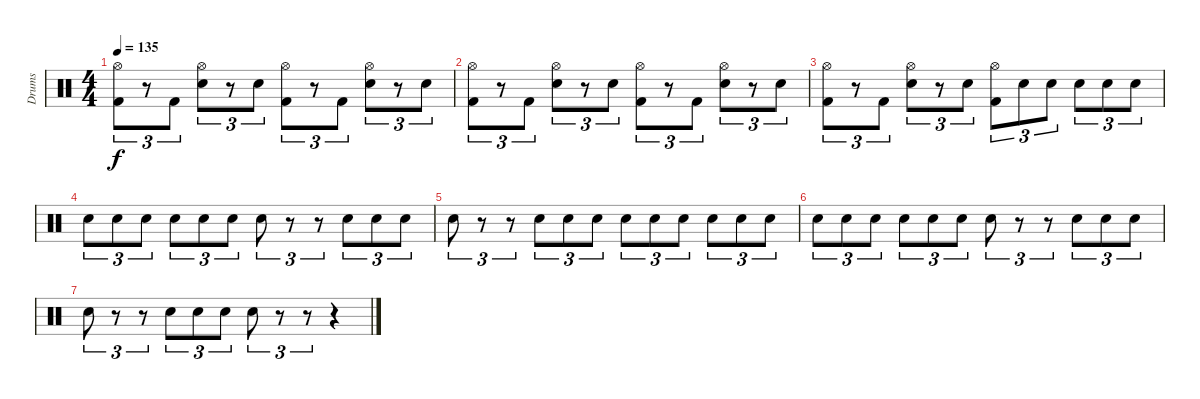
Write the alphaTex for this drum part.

\track ("Drums" "Drums") {instrument percussion}
\staff {score}
\articulation defaults
\ts (4 4)
\tempo 135
\clef neutral
\ks c
("Kick (hit) 2" "Hi-Hat (open)").8{tu (3 2) dy f} r.8{tu (3 2)} "Kick (hit) 2".8{tu (3 2)} ("Snare (hit) 2" "Hi-Hat (open)").8{tu (3 2)} r.8{tu (3 2)} "Snare (hit) 2".8{tu (3 2)} ("Kick (hit) 2" "Hi-Hat (open)").8{tu (3 2)} r.8{tu (3 2)} "Kick (hit) 2".8{tu (3 2)} ("Snare (hit) 2" "Hi-Hat (open)").8{tu (3 2)} r.8{tu (3 2)} "Snare (hit) 2".8{tu (3 2)} |
("Kick (hit) 2" "Hi-Hat (open)").8{tu (3 2)} r.8{tu (3 2)} "Kick (hit) 2".8{tu (3 2)} ("Snare (hit) 2" "Hi-Hat (open)").8{tu (3 2)} r.8{tu (3 2)} "Snare (hit) 2".8{tu (3 2)} ("Kick (hit) 2" "Hi-Hat (open)").8{tu (3 2)} r.8{tu (3 2)} "Kick (hit) 2".8{tu (3 2)} ("Snare (hit) 2" "Hi-Hat (open)").8{tu (3 2)} r.8{tu (3 2)} "Snare (hit) 2".8{tu (3 2)} |
("Kick (hit) 2" "Hi-Hat (open)").8{tu (3 2)} r.8{tu (3 2)} "Kick (hit) 2".8{tu (3 2)} ("Snare (hit) 2" "Hi-Hat (open)").8{tu (3 2)} r.8{tu (3 2)} "Snare (hit) 2".8{tu (3 2)} ("Kick (hit) 2" "Hi-Hat (open)").8{tu (3 2)} "Snare (hit) 2".8{tu (3 2)} "Snare (hit) 2".8{tu (3 2)} "Snare (hit) 2".8{tu (3 2)} "Snare (hit) 2".8{tu (3 2)} "Snare (hit) 2".8{tu (3 2)} |
"Snare (hit) 2".8{tu (3 2)} "Snare (hit) 2".8{tu (3 2)} "Snare (hit) 2".8{tu (3 2)} "Snare (hit) 2".8{tu (3 2)} "Snare (hit) 2".8{tu (3 2)} "Snare (hit) 2".8{tu (3 2)} "Snare (hit) 2".8{tu (3 2)} r.8{tu (3 2)} r.8{tu (3 2)} "Snare (hit) 2".8{tu (3 2)} "Snare (hit) 2".8{tu (3 2)} "Snare (hit) 2".8{tu (3 2)} |
"Snare (hit) 2".8{tu (3 2)} r.8{tu (3 2)} r.8{tu (3 2)} "Snare (hit) 2".8{tu (3 2)} "Snare (hit) 2".8{tu (3 2)} "Snare (hit) 2".8{tu (3 2)} "Snare (hit) 2".8{tu (3 2)} "Snare (hit) 2".8{tu (3 2)} "Snare (hit) 2".8{tu (3 2)} "Snare (hit) 2".8{tu (3 2)} "Snare (hit) 2".8{tu (3 2)} "Snare (hit) 2".8{tu (3 2)} |
"Snare (hit) 2".8{tu (3 2)} "Snare (hit) 2".8{tu (3 2)} "Snare (hit) 2".8{tu (3 2)} "Snare (hit) 2".8{tu (3 2)} "Snare (hit) 2".8{tu (3 2)} "Snare (hit) 2".8{tu (3 2)} "Snare (hit) 2".8{tu (3 2)} r.8{tu (3 2)} r.8{tu (3 2)} "Snare (hit) 2".8{tu (3 2)} "Snare (hit) 2".8{tu (3 2)} "Snare (hit) 2".8{tu (3 2)} |
"Snare (hit) 2".8{tu (3 2)} r.8{tu (3 2)} r.8{tu (3 2)} "Snare (hit) 2".8{tu (3 2)} "Snare (hit) 2".8{tu (3 2)} "Snare (hit) 2".8{tu (3 2)} "Snare (hit) 2".8{tu (3 2)} r.8{tu (3 2)} r.8{tu (3 2)} r.4
